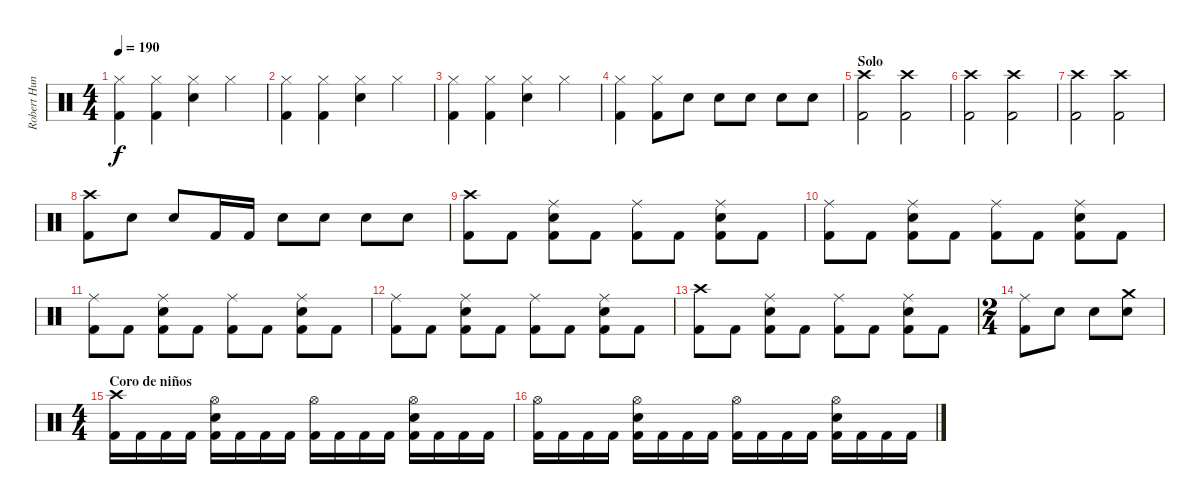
\track ("Robert Hunecke" "Robert Hun") {instrument percussion}
\staff {score}
\articulation defaults
\ts (4 4)
\tempo 190
\clef neutral
\ks c
("Kick (hit) 2" "Hi-Hat (closed)").4{dy f} ("Kick (hit) 2" "Hi-Hat (closed)").4 ("Electric Snare (hit)" "Hi-Hat (closed)").4 "Hi-Hat (closed)".4 |
("Kick (hit) 2" "Hi-Hat (closed)").4 ("Kick (hit) 2" "Hi-Hat (closed)").4 ("Electric Snare (hit)" "Hi-Hat (closed)").4 "Hi-Hat (closed)".4 |
("Kick (hit) 2" "Hi-Hat (closed)").4 ("Kick (hit) 2" "Hi-Hat (closed)").4 ("Electric Snare (hit)" "Hi-Hat (closed)").4 "Hi-Hat (closed)".4 |
("Kick (hit) 2" "Hi-Hat (closed)").4 ("Kick (hit) 2" "Hi-Hat (closed)").8 "Electric Snare (hit)".8 "Electric Snare (hit)".8 "Electric Snare (hit)".8 "Electric Snare (hit)".8 "Electric Snare (hit)".8 |
\section ("" "Solo")
("Kick (hit) 2" "Crash high (hit)").2 ("Kick (hit) 2" "Crash high (hit)").2 |
("Kick (hit) 2" "Crash high (hit)").2 ("Kick (hit) 2" "Crash high (hit)").2 |
("Kick (hit) 2" "Crash high (hit)").2 ("Kick (hit) 2" "Crash high (hit)").2 |
("Kick (hit) 2" "Crash high (hit)").8 "Electric Snare (hit)".8 "Electric Snare (hit)".8 "Kick (hit) 2".16 "Kick (hit) 2".16 "Electric Snare (hit)".8 "Electric Snare (hit)".8 "Electric Snare (hit)".8 "Electric Snare (hit)".8 |
("Kick (hit) 2" "Crash high (hit)").8 "Kick (hit) 2".8 ("Kick (hit) 2" "Electric Snare (hit)" "Ride (middle)").8 "Kick (hit) 2".8 ("Kick (hit) 2" "Ride (middle)").8 "Kick (hit) 2".8 ("Kick (hit) 2" "Electric Snare (hit)" "Ride (middle)").8 "Kick (hit) 2".8 |
("Kick (hit) 2" "Ride (middle)").8 "Kick (hit) 2".8 ("Kick (hit) 2" "Electric Snare (hit)" "Ride (middle)").8 "Kick (hit) 2".8 ("Kick (hit) 2" "Ride (middle)").8 "Kick (hit) 2".8 ("Kick (hit) 2" "Electric Snare (hit)" "Ride (middle)").8 "Kick (hit) 2".8 |
("Kick (hit) 2" "Ride (middle)").8 "Kick (hit) 2".8 ("Kick (hit) 2" "Electric Snare (hit)" "Ride (middle)").8 "Kick (hit) 2".8 ("Kick (hit) 2" "Ride (middle)").8 "Kick (hit) 2".8 ("Kick (hit) 2" "Electric Snare (hit)" "Ride (middle)").8 "Kick (hit) 2".8 |
("Kick (hit) 2" "Ride (middle)").8 "Kick (hit) 2".8 ("Kick (hit) 2" "Electric Snare (hit)" "Ride (middle)").8 "Kick (hit) 2".8 ("Kick (hit) 2" "Ride (middle)").8 "Kick (hit) 2".8 ("Kick (hit) 2" "Electric Snare (hit)" "Ride (middle)").8 "Kick (hit) 2".8 |
("Kick (hit) 2" "Crash high (hit)").8 "Kick (hit) 2".8 ("Kick (hit) 2" "Electric Snare (hit)" "Ride (middle)").8 "Kick (hit) 2".8 ("Kick (hit) 2" "Ride (middle)").8 "Kick (hit) 2".8 ("Kick (hit) 2" "Electric Snare (hit)" "Ride (middle)").8 "Kick (hit) 2".8 |
\ts (2 4)
("Kick (hit) 2" "Ride (middle)").8 "Electric Snare (hit)".8 "Electric Snare (hit)".8 ("Electric Snare (hit)" "Crash medium (hit)").8 |
\ts (4 4)
\section ("" "Coro de niños")
("Kick (hit) 2" "Crash high (hit)").16 "Kick (hit) 2".16 "Kick (hit) 2".16 "Kick (hit) 2".16 ("Kick (hit) 2" "Electric Snare (hit)" "Hi-Hat (open)").16 "Kick (hit) 2".16 "Kick (hit) 2".16 "Kick (hit) 2".16 ("Kick (hit) 2" "Hi-Hat (open)").16 "Kick (hit) 2".16 "Kick (hit) 2".16 "Kick (hit) 2".16 ("Kick (hit) 2" "Electric Snare (hit)" "Hi-Hat (open)").16 "Kick (hit) 2".16 "Kick (hit) 2".16 "Kick (hit) 2".16 |
("Kick (hit) 2" "Hi-Hat (open)").16 "Kick (hit) 2".16 "Kick (hit) 2".16 "Kick (hit) 2".16 ("Kick (hit) 2" "Electric Snare (hit)" "Hi-Hat (open)").16 "Kick (hit) 2".16 "Kick (hit) 2".16 "Kick (hit) 2".16 ("Kick (hit) 2" "Hi-Hat (open)").16 "Kick (hit) 2".16 "Kick (hit) 2".16 "Kick (hit) 2".16 ("Kick (hit) 2" "Electric Snare (hit)" "Hi-Hat (open)").16 "Kick (hit) 2".16 "Kick (hit) 2".16 "Kick (hit) 2".16
